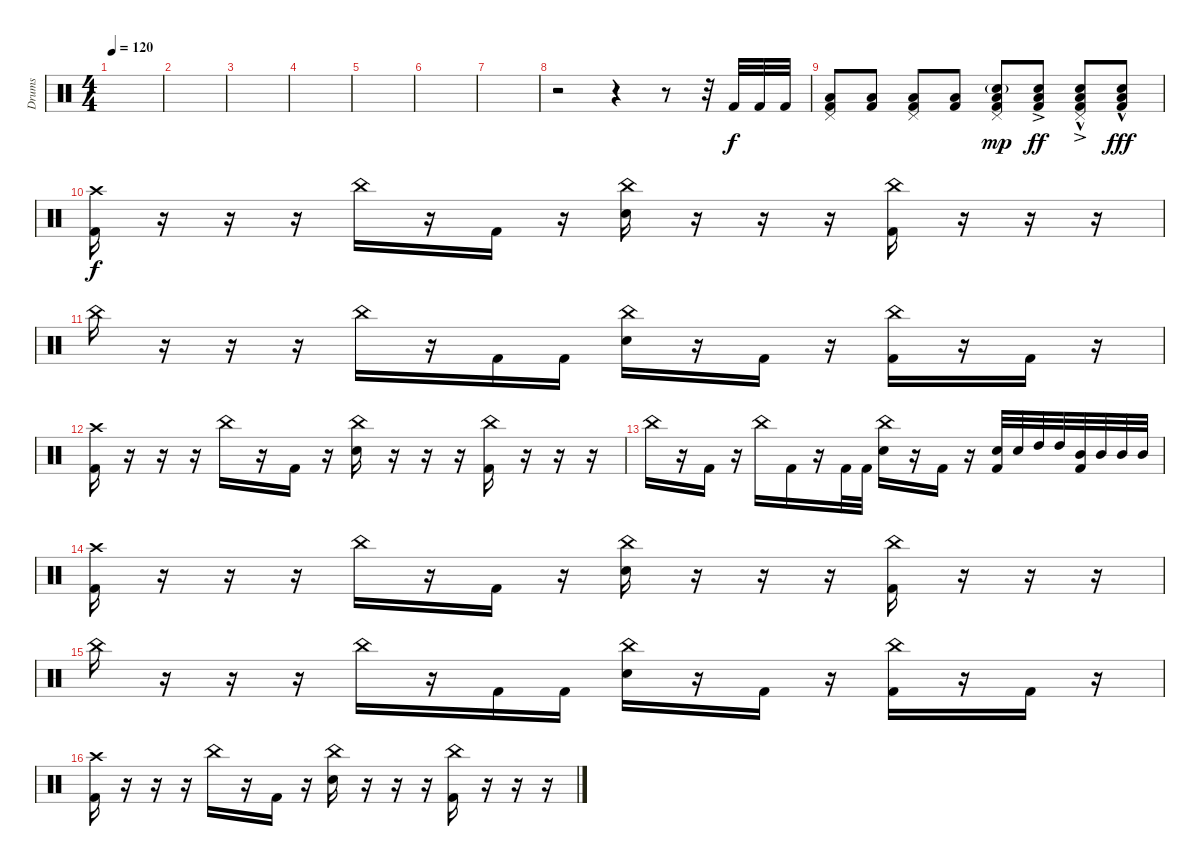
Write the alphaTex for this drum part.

\track ("Drums" "Drums") {instrument percussion}
\staff {score}
\articulation defaults
\ts (4 4)
\tempo 120
\clef neutral
\ks c
|
|
|
|
|
|
|
r.2 r.4 r.8 r.32 "Kick (hit) 2".32 "Kick (hit) 2".32 "Kick (hit) 2".32 |
("Pedal Hi-Hat (hit)" "Low Tom (hit)" "Kick (hit) 2").8 ("Low Tom (hit)" "Kick (hit) 2").8 ("Pedal Hi-Hat (hit)" "Low Tom (hit)" "Kick (hit) 2").8 ("Low Tom (hit)" "Kick (hit) 2").8 ("Pedal Hi-Hat (hit)" "Low Tom (hit)" "Snare (hit) 2"{g} "Kick (hit) 2").8{dy mp} ("Low Tom (hit)"{ac} "Snare (hit) 2" "Kick (hit) 2").8{dy ff} ("Pedal Hi-Hat (hit)" "Low Tom (hit)"{hac} "Snare (hit) 2"{ac} "Kick (hit) 2").8 ("Low Tom (hit)"{hac} "Snare (hit) 2"{hac} "Kick (hit) 2").8{dy fff} |
("Crash high (hit)" "Kick (hit) 2").16{dy f} r.16 r.16 r.16 "China (hit)".16 r.16 "Kick (hit) 2".16 r.16 ("China (hit)" "Snare (hit) 2").16 r.16 r.16 r.16 ("China (hit)" "Kick (hit) 2").16 r.16 r.16 r.16 |
"China (hit)".16 r.16 r.16 r.16 "China (hit)".16 r.16 "Kick (hit) 2".16 "Kick (hit) 2".16 ("China (hit)" "Snare (hit) 2").16 r.16 "Kick (hit) 2".16 r.16 ("China (hit)" "Kick (hit) 2").16 r.16 "Kick (hit) 2".16 r.16 |
("Crash high (hit)" "Kick (hit) 2").16 r.16 r.16 r.16 "China (hit)".16 r.16 "Kick (hit) 2".16 r.16 ("China (hit)" "Snare (hit) 2").16 r.16 r.16 r.16 ("China (hit)" "Kick (hit) 2").16 r.16 r.16 r.16 |
"China (hit)".16 r.16 "Kick (hit) 2".16 r.16 "China (hit)".16 "Kick (hit) 2".16 r.16 "Kick (hit) 2".32 "Kick (hit) 2".32 ("China (hit)" "Snare (hit) 2").16 r.16 "Kick (hit) 2".16 r.16 ("Snare (hit) 2" "Kick (hit) 2").32 "Snare (hit) 2".32 "High Tom (hit)".32 "High Tom (hit)".32 ("Mid Tom (hit)" "Kick (hit) 2").32 "Mid Tom (hit)".32 "Mid Tom (hit)".32 "Mid Tom (hit)".32 |
("Crash high (hit)" "Kick (hit) 2").16 r.16 r.16 r.16 "China (hit)".16 r.16 "Kick (hit) 2".16 r.16 ("China (hit)" "Snare (hit) 2").16 r.16 r.16 r.16 ("China (hit)" "Kick (hit) 2").16 r.16 r.16 r.16 |
"China (hit)".16 r.16 r.16 r.16 "China (hit)".16 r.16 "Kick (hit) 2".16 "Kick (hit) 2".16 ("China (hit)" "Snare (hit) 2").16 r.16 "Kick (hit) 2".16 r.16 ("China (hit)" "Kick (hit) 2").16 r.16 "Kick (hit) 2".16 r.16 |
("Crash high (hit)" "Kick (hit) 2").16 r.16 r.16 r.16 "China (hit)".16 r.16 "Kick (hit) 2".16 r.16 ("China (hit)" "Snare (hit) 2").16 r.16 r.16 r.16 ("China (hit)" "Kick (hit) 2").16 r.16 r.16 r.16
